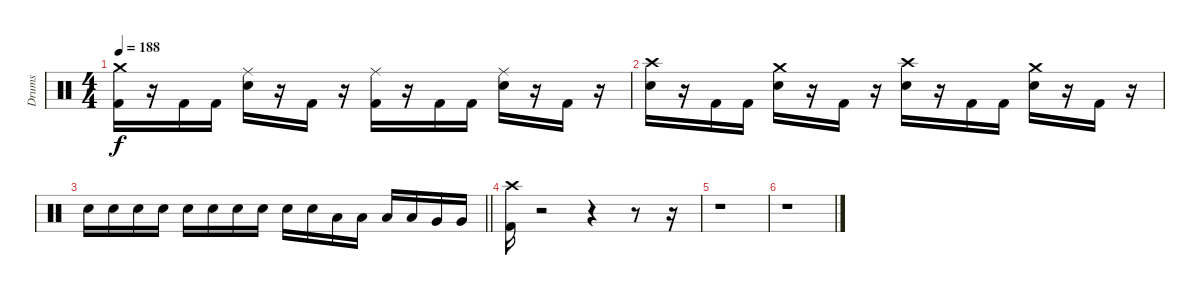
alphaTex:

\track ("Drums" "Drums") {instrument percussion}
\staff {score}
\articulation defaults
\ts (4 4)
\tempo 188
\clef neutral
\ks c
("Kick (hit) 2" "Crash medium (hit)").16{dy f} r.16 "Kick (hit) 2".16 "Kick (hit) 2".16 ("Snare (hit) 2" "Ride (middle)").16 r.16 "Kick (hit) 2".16 r.16 ("Kick (hit) 2" "Ride (middle)").16 r.16 "Kick (hit) 2".16 "Kick (hit) 2".16 ("Snare (hit) 2" "Ride (middle)").16 r.16 "Kick (hit) 2".16 r.16 |
("Snare (hit) 2" "Crash high (hit)").16 r.16 "Kick (hit) 2".16 "Kick (hit) 2".16 ("Snare (hit) 2" "Crash medium (hit)").16 r.16 "Kick (hit) 2".16 r.16 ("Snare (hit) 2" "Crash high (hit)").16 r.16 "Kick (hit) 2".16 "Kick (hit) 2".16 ("Snare (hit) 2" "Crash medium (hit)").16 r.16 "Kick (hit) 2".16 r.16 |
\barLineRight lightlight "Snare (hit) 2".16 "Snare (hit) 2".16 "Snare (hit) 2".16 "Snare (hit) 2".16 "Snare (hit) 2".16 "Snare (hit) 2".16 "Snare (hit) 2".16 "Snare (hit) 2".16 "Snare (hit) 2".16 "Snare (hit) 2".16 "Low Tom (hit)".16 "Low Tom (hit)".16 "Low Tom (hit)".16 "Low Tom (hit)".16 "Very Low Tom (hit)".16 "Very Low Tom (hit)".16
|
\section ("" " ")
("Kick (hit) 2" "Crash high (hit)").16 r.2 r.4 r.8 r.16 |
r.1 |
r.1
